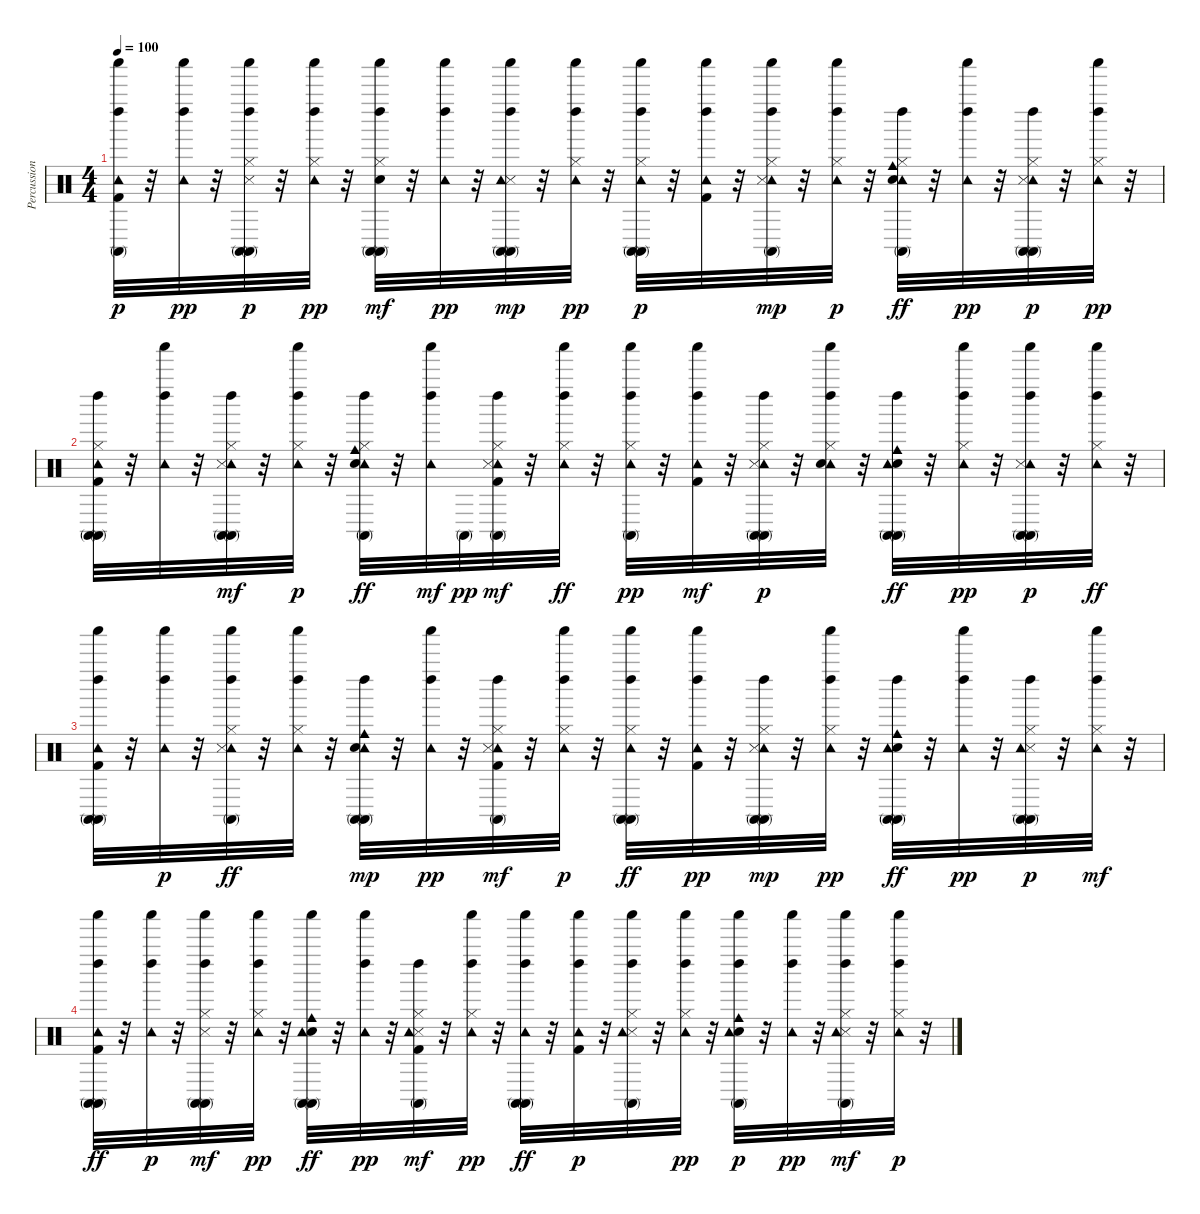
\track ("Percussions" "Percussion") {instrument percussion}
\staff {score}
\articulation defaults
\ts (4 4)
\tempo 100
\clef neutral
\ks c
("Kick (hit) 2" "Conga high (mute)" "Left Maraca (hit)" "Shaker (hit)" "Tambourine (hit)").32{dy p} r.32 ("Left Maraca (hit)" "Shaker (hit)" "Tambourine (hit)").32{dy pp} r.32 ("Conga high (mute)" "Left Maraca (hit)" "Snare (side stick) 3" "Hi-Hat (closed)" "Conga high (mute)" "Shaker (hit)").32{dy p} r.32 ("Hi-Hat (closed)" "Left Maraca (hit)" "Shaker (hit)" "Tambourine (hit)").32{dy pp} r.32 ("Conga high (mute)" "Left Maraca (hit)" "Hi-Hat (closed)" "Shaker (hit)" "Electric Snare (hit)" "Conga high (mute)").32{dy mf} r.32 ("Left Maraca (hit)" "Shaker (hit)" "Tambourine (hit)").32{dy pp} r.32 ("Conga high (mute)" "Left Maraca (hit)" "Shaker (hit)" "Snare (side stick) 3" "Tambourine (hit)" "Conga high (mute)").32{dy mp} r.32 ("Left Maraca (hit)" "Hi-Hat (closed)" "Tambourine (hit)" "Shaker (hit)").32{dy pp} r.32 ("Conga high (mute)" "Left Maraca (hit)" "Shaker (hit)" "Conga high (mute)" "Tambourine (hit)" "Hi-Hat (closed)").32{dy p} r.32 ("Left Maraca (hit)" "Tambourine (hit)" "Kick (hit) 2" "Shaker (hit)").32 r.32 ("Conga high (mute)" "Left Maraca (hit)" "Tambourine (hit)" "Shaker (hit)" "Snare (side stick) 3" "Hi-Hat (closed)").32{dy mp} r.32 ("Tambourine (hit)" "Left Maraca (hit)" "Hi-Hat (closed)" "Shaker (hit)").32{dy p} r.32 ("Conga high (mute)" "Tambourine (hit)" "Left Maraca (hit)" "Electric Snare (hit)" "Hi-Hat (closed)" "Cowbell medium (hit)").32{dy ff} r.32 ("Tambourine (hit)" "Left Maraca (hit)" "Shaker (hit)").32{dy pp} r.32 ("Conga high (mute)" "Tambourine (hit)" "Conga high (mute)" "Left Maraca (hit)" "Snare (side stick) 3" "Hi-Hat (closed)").32{dy p} r.32 ("Tambourine (hit)" "Hi-Hat (closed)" "Left Maraca (hit)" "Shaker (hit)").32{dy pp} r.32 |
("Conga high (mute)" "Tambourine (hit)" "Conga high (mute)" "Left Maraca (hit)" "Kick (hit) 2" "Hi-Hat (closed)").32 r.32 ("Tambourine (hit)" "Left Maraca (hit)" "Shaker (hit)").32 r.32 ("Conga high (mute)" "Conga high (mute)" "Tambourine (hit)" "Left Maraca (hit)" "Snare (side stick) 3" "Hi-Hat (closed)").32{dy mf} r.32 ("Tambourine (hit)" "Hi-Hat (closed)" "Left Maraca (hit)" "Shaker (hit)").32{dy p} r.32 ("Conga high (mute)" "Tambourine (hit)" "Left Maraca (hit)" "Electric Snare (hit)" "Hi-Hat (closed)" "Cowbell medium (hit)").32{dy ff} r.32 ("Tambourine (hit)" "Shaker (hit)" "Left Maraca (hit)").32{dy mf} "Conga high (mute)".32{dy pp} ("Conga high (mute)" "Tambourine (hit)" "Snare (side stick) 3" "Left Maraca (hit)" "Kick (hit) 2" "Hi-Hat (closed)").32{dy mf} r.32 ("Tambourine (hit)" "Hi-Hat (closed)" "Shaker (hit)" "Left Maraca (hit)").32{dy ff} r.32 ("Conga high (mute)" "Tambourine (hit)" "Hi-Hat (closed)" "Shaker (hit)" "Left Maraca (hit)").32{dy pp} r.32 ("Tambourine (hit)" "Kick (hit) 2" "Shaker (hit)" "Left Maraca (hit)").32{dy mf} r.32 ("Conga high (mute)" "Tambourine (hit)" "Conga high (mute)" "Snare (side stick) 3" "Hi-Hat (closed)" "Left Maraca (hit)").32{dy p} r.32 ("Tambourine (hit)" "Hi-Hat (closed)" "Left Maraca (hit)" "Shaker (hit)" "Electric Snare (hit)").32 r.32 ("Conga high (mute)" "Electric Snare (hit)" "Tambourine (hit)" "Cowbell medium (hit)" "Conga high (mute)" "Left Maraca (hit)").32{dy ff} r.32 ("Tambourine (hit)" "Hi-Hat (closed)" "Left Maraca (hit)" "Shaker (hit)").32{dy pp} r.32 ("Conga high (mute)" "Tambourine (hit)" "Snare (side stick) 3" "Shaker (hit)" "Conga high (mute)" "Left Maraca (hit)").32{dy p} r.32 ("Tambourine (hit)" "Hi-Hat (closed)" "Shaker (hit)" "Left Maraca (hit)").32{dy ff} r.32 |
("Conga high (mute)" "Tambourine (hit)" "Shaker (hit)" "Conga high (mute)" "Kick (hit) 2" "Left Maraca (hit)").32 r.32 ("Tambourine (hit)" "Left Maraca (hit)" "Shaker (hit)").32{dy p} r.32 ("Conga high (mute)" "Tambourine (hit)" "Hi-Hat (closed)" "Left Maraca (hit)" "Snare (side stick) 3" "Shaker (hit)").32{dy ff} r.32 ("Tambourine (hit)" "Hi-Hat (closed)" "Shaker (hit)" "Left Maraca (hit)").32 r.32 ("Conga high (mute)" "Tambourine (hit)" "Electric Snare (hit)" "Cowbell medium (hit)" "Left Maraca (hit)" "Conga high (mute)").32{dy mp} r.32 ("Tambourine (hit)" "Left Maraca (hit)" "Shaker (hit)").32{dy pp} r.32 ("Tambourine (hit)" "Left Maraca (hit)" "Conga high (mute)" "Hi-Hat (closed)" "Kick (hit) 2" "Snare (side stick) 3").32{dy mf} r.32 ("Tambourine (hit)" "Hi-Hat (closed)" "Left Maraca (hit)" "Shaker (hit)").32{dy p} r.32 ("Conga high (mute)" "Tambourine (hit)" "Hi-Hat (closed)" "Conga high (mute)" "Left Maraca (hit)" "Shaker (hit)").32{dy ff} r.32 ("Tambourine (hit)" "Kick (hit) 2" "Left Maraca (hit)" "Shaker (hit)").32{dy pp} r.32 ("Conga high (mute)" "Tambourine (hit)" "Hi-Hat (closed)" "Snare (side stick) 3" "Left Maraca (hit)" "Conga high (mute)").32{dy mp} r.32 ("Hi-Hat (closed)" "Tambourine (hit)" "Left Maraca (hit)" "Shaker (hit)").32{dy pp} r.32 ("Conga high (mute)" "Electric Snare (hit)" "Tambourine (hit)" "Cowbell medium (hit)" "Conga high (mute)" "Left Maraca (hit)").32{dy ff} r.32 ("Tambourine (hit)" "Left Maraca (hit)" "Shaker (hit)").32{dy pp} r.32 ("Conga high (mute)" "Conga high (mute)" "Snare (side stick) 3" "Hi-Hat (closed)" "Tambourine (hit)" "Left Maraca (hit)").32{dy p} r.32 ("Hi-Hat (closed)" "Tambourine (hit)" "Shaker (hit)" "Left Maraca (hit)").32{dy mf} r.32 |
("Conga high (mute)" "Kick (hit) 2" "Tambourine (hit)" "Conga high (mute)" "Shaker (hit)" "Left Maraca (hit)").32{dy ff} r.32 ("Tambourine (hit)" "Left Maraca (hit)" "Shaker (hit)").32{dy p} r.32 ("Conga high (mute)" "Left Maraca (hit)" "Hi-Hat (closed)" "Snare (side stick) 3" "Conga high (mute)" "Shaker (hit)").32{dy mf} r.32 ("Hi-Hat (closed)" "Tambourine (hit)" "Left Maraca (hit)" "Shaker (hit)").32{dy pp} r.32 ("Conga high (mute)" "Conga high (mute)" "Electric Snare (hit)" "Tambourine (hit)" "Shaker (hit)" "Cowbell medium (hit)").32{dy ff} r.32 ("Shaker (hit)" "Left Maraca (hit)" "Tambourine (hit)").32{dy pp} r.32 ("Conga high (mute)" "Left Maraca (hit)" "Snare (side stick) 3" "Kick (hit) 2" "Hi-Hat (closed)" "Tambourine (hit)").32{dy mf} r.32 ("Hi-Hat (closed)" "Left Maraca (hit)" "Shaker (hit)" "Tambourine (hit)").32{dy pp} r.32 ("Conga high (mute)" "Conga high (mute)" "Left Maraca (hit)" "Tambourine (hit)" "Shaker (hit)").32{dy ff} r.32 ("Kick (hit) 2" "Left Maraca (hit)" "Tambourine (hit)" "Shaker (hit)").32{dy p} r.32 ("Left Maraca (hit)" "Snare (side stick) 3" "Hi-Hat (closed)" "Shaker (hit)" "Tambourine (hit)" "Conga high (mute)").32 r.32 ("Hi-Hat (closed)" "Left Maraca (hit)" "Tambourine (hit)" "Shaker (hit)").32{dy pp} r.32 ("Electric Snare (hit)" "Tambourine (hit)" "Cowbell medium (hit)" "Left Maraca (hit)" "Shaker (hit)" "Conga high (mute)").32{dy p} r.32 ("Shaker (hit)" "Left Maraca (hit)" "Tambourine (hit)").32{dy pp} r.32 ("Left Maraca (hit)" "Conga high (mute)" "Hi-Hat (closed)" "Snare (side stick) 3" "Shaker (hit)" "Tambourine (hit)").32{dy mf} r.32 ("Hi-Hat (closed)" "Tambourine (hit)" "Shaker (hit)" "Left Maraca (hit)").32{dy p} r.32
